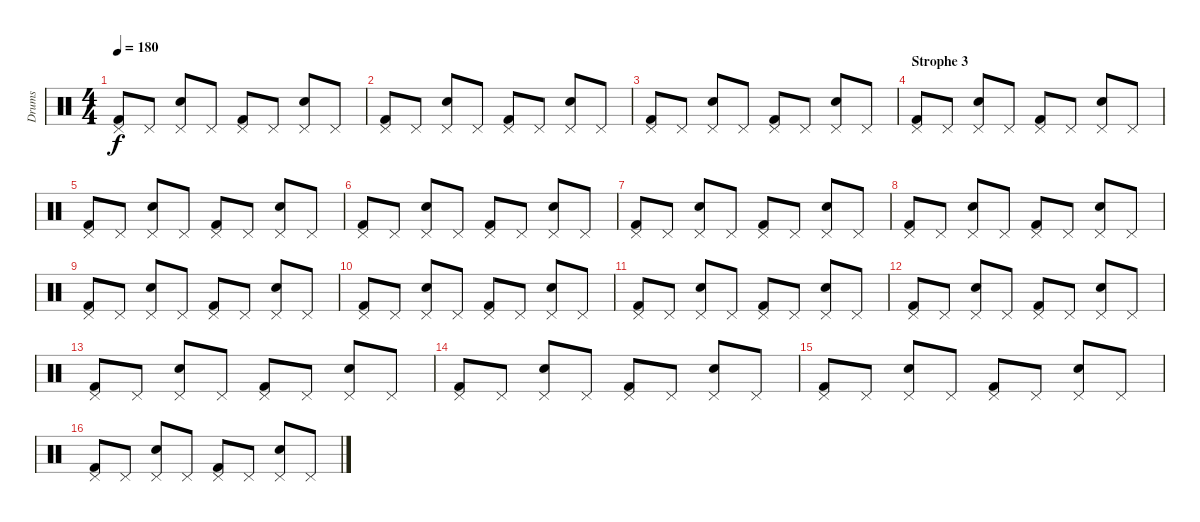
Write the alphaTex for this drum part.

\track ("Drums" "Drums") {instrument percussion}
\staff {score}
\articulation defaults
\ts (4 4)
\tempo 180
\clef neutral
\ks c
("Pedal Hi-Hat (hit)" "Kick (hit) 2").8{dy f} "Pedal Hi-Hat (hit)".8 ("Pedal Hi-Hat (hit)" "Electric Snare (hit)").8 "Pedal Hi-Hat (hit)".8 ("Pedal Hi-Hat (hit)" "Kick (hit) 2").8 "Pedal Hi-Hat (hit)".8 ("Pedal Hi-Hat (hit)" "Electric Snare (hit)").8 "Pedal Hi-Hat (hit)".8 |
("Pedal Hi-Hat (hit)" "Kick (hit) 2").8 "Pedal Hi-Hat (hit)".8 ("Pedal Hi-Hat (hit)" "Electric Snare (hit)").8 "Pedal Hi-Hat (hit)".8 ("Pedal Hi-Hat (hit)" "Kick (hit) 2").8 "Pedal Hi-Hat (hit)".8 ("Pedal Hi-Hat (hit)" "Electric Snare (hit)").8 "Pedal Hi-Hat (hit)".8 |
("Pedal Hi-Hat (hit)" "Kick (hit) 2").8 "Pedal Hi-Hat (hit)".8 ("Pedal Hi-Hat (hit)" "Electric Snare (hit)").8 "Pedal Hi-Hat (hit)".8 ("Pedal Hi-Hat (hit)" "Kick (hit) 2").8 "Pedal Hi-Hat (hit)".8 ("Pedal Hi-Hat (hit)" "Electric Snare (hit)").8 "Pedal Hi-Hat (hit)".8 |
\section ("" "Strophe 3")
("Pedal Hi-Hat (hit)" "Kick (hit) 2").8 "Pedal Hi-Hat (hit)".8 ("Pedal Hi-Hat (hit)" "Electric Snare (hit)").8 "Pedal Hi-Hat (hit)".8 ("Pedal Hi-Hat (hit)" "Kick (hit) 2").8 "Pedal Hi-Hat (hit)".8 ("Pedal Hi-Hat (hit)" "Electric Snare (hit)").8 "Pedal Hi-Hat (hit)".8 |
("Pedal Hi-Hat (hit)" "Kick (hit) 2").8 "Pedal Hi-Hat (hit)".8 ("Pedal Hi-Hat (hit)" "Electric Snare (hit)").8 "Pedal Hi-Hat (hit)".8 ("Pedal Hi-Hat (hit)" "Kick (hit) 2").8 "Pedal Hi-Hat (hit)".8 ("Pedal Hi-Hat (hit)" "Electric Snare (hit)").8 "Pedal Hi-Hat (hit)".8 |
("Pedal Hi-Hat (hit)" "Kick (hit) 2").8 "Pedal Hi-Hat (hit)".8 ("Pedal Hi-Hat (hit)" "Electric Snare (hit)").8 "Pedal Hi-Hat (hit)".8 ("Pedal Hi-Hat (hit)" "Kick (hit) 2").8 "Pedal Hi-Hat (hit)".8 ("Pedal Hi-Hat (hit)" "Electric Snare (hit)").8 "Pedal Hi-Hat (hit)".8 |
("Pedal Hi-Hat (hit)" "Kick (hit) 2").8 "Pedal Hi-Hat (hit)".8 ("Pedal Hi-Hat (hit)" "Electric Snare (hit)").8 "Pedal Hi-Hat (hit)".8 ("Pedal Hi-Hat (hit)" "Kick (hit) 2").8 "Pedal Hi-Hat (hit)".8 ("Pedal Hi-Hat (hit)" "Electric Snare (hit)").8 "Pedal Hi-Hat (hit)".8 |
("Pedal Hi-Hat (hit)" "Kick (hit) 2").8 "Pedal Hi-Hat (hit)".8 ("Pedal Hi-Hat (hit)" "Electric Snare (hit)").8 "Pedal Hi-Hat (hit)".8 ("Pedal Hi-Hat (hit)" "Kick (hit) 2").8 "Pedal Hi-Hat (hit)".8 ("Pedal Hi-Hat (hit)" "Electric Snare (hit)").8 "Pedal Hi-Hat (hit)".8 |
("Pedal Hi-Hat (hit)" "Kick (hit) 2").8 "Pedal Hi-Hat (hit)".8 ("Pedal Hi-Hat (hit)" "Electric Snare (hit)").8 "Pedal Hi-Hat (hit)".8 ("Pedal Hi-Hat (hit)" "Kick (hit) 2").8 "Pedal Hi-Hat (hit)".8 ("Pedal Hi-Hat (hit)" "Electric Snare (hit)").8 "Pedal Hi-Hat (hit)".8 |
("Pedal Hi-Hat (hit)" "Kick (hit) 2").8 "Pedal Hi-Hat (hit)".8 ("Pedal Hi-Hat (hit)" "Electric Snare (hit)").8 "Pedal Hi-Hat (hit)".8 ("Pedal Hi-Hat (hit)" "Kick (hit) 2").8 "Pedal Hi-Hat (hit)".8 ("Pedal Hi-Hat (hit)" "Electric Snare (hit)").8 "Pedal Hi-Hat (hit)".8 |
("Pedal Hi-Hat (hit)" "Kick (hit) 2").8 "Pedal Hi-Hat (hit)".8 ("Pedal Hi-Hat (hit)" "Electric Snare (hit)").8 "Pedal Hi-Hat (hit)".8 ("Pedal Hi-Hat (hit)" "Kick (hit) 2").8 "Pedal Hi-Hat (hit)".8 ("Pedal Hi-Hat (hit)" "Electric Snare (hit)").8 "Pedal Hi-Hat (hit)".8 |
("Pedal Hi-Hat (hit)" "Kick (hit) 2").8 "Pedal Hi-Hat (hit)".8 ("Pedal Hi-Hat (hit)" "Electric Snare (hit)").8 "Pedal Hi-Hat (hit)".8 ("Pedal Hi-Hat (hit)" "Kick (hit) 2").8 "Pedal Hi-Hat (hit)".8 ("Pedal Hi-Hat (hit)" "Electric Snare (hit)").8 "Pedal Hi-Hat (hit)".8 |
("Pedal Hi-Hat (hit)" "Kick (hit) 2").8 "Pedal Hi-Hat (hit)".8 ("Pedal Hi-Hat (hit)" "Electric Snare (hit)").8 "Pedal Hi-Hat (hit)".8 ("Pedal Hi-Hat (hit)" "Kick (hit) 2").8 "Pedal Hi-Hat (hit)".8 ("Pedal Hi-Hat (hit)" "Electric Snare (hit)").8 "Pedal Hi-Hat (hit)".8 |
("Pedal Hi-Hat (hit)" "Kick (hit) 2").8 "Pedal Hi-Hat (hit)".8 ("Pedal Hi-Hat (hit)" "Electric Snare (hit)").8 "Pedal Hi-Hat (hit)".8 ("Pedal Hi-Hat (hit)" "Kick (hit) 2").8 "Pedal Hi-Hat (hit)".8 ("Pedal Hi-Hat (hit)" "Electric Snare (hit)").8 "Pedal Hi-Hat (hit)".8 |
("Pedal Hi-Hat (hit)" "Kick (hit) 2").8 "Pedal Hi-Hat (hit)".8 ("Pedal Hi-Hat (hit)" "Electric Snare (hit)").8 "Pedal Hi-Hat (hit)".8 ("Pedal Hi-Hat (hit)" "Kick (hit) 2").8 "Pedal Hi-Hat (hit)".8 ("Pedal Hi-Hat (hit)" "Electric Snare (hit)").8 "Pedal Hi-Hat (hit)".8 |
("Pedal Hi-Hat (hit)" "Kick (hit) 2").8 "Pedal Hi-Hat (hit)".8 ("Pedal Hi-Hat (hit)" "Electric Snare (hit)").8 "Pedal Hi-Hat (hit)".8 ("Pedal Hi-Hat (hit)" "Kick (hit) 2").8 "Pedal Hi-Hat (hit)".8 ("Pedal Hi-Hat (hit)" "Electric Snare (hit)").8 "Pedal Hi-Hat (hit)".8
